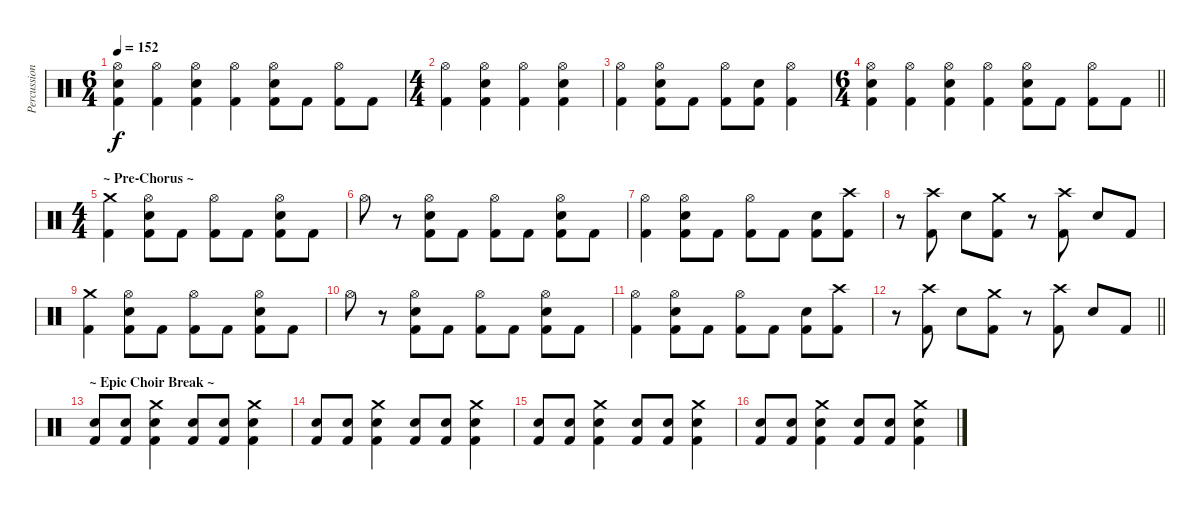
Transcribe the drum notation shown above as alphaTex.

\track ("Percussion" "Percussion") {instrument percussion}
\staff {score}
\articulation defaults
\ts (6 4)
\tempo 152
\clef neutral
\ks c
("Hi-Hat (open)" "Electric Snare (hit)" "Kick (hit) 2").4{dy f} ("Hi-Hat (open)" "Kick (hit) 2").4 ("Hi-Hat (open)" "Electric Snare (hit)" "Kick (hit) 2").4 ("Hi-Hat (open)" "Kick (hit) 2").4 ("Hi-Hat (open)" "Electric Snare (hit)" "Kick (hit) 2").8 "Kick (hit) 2".8 ("Hi-Hat (open)" "Kick (hit) 2").8 "Kick (hit) 2".8 |
\ts (4 4)
("Hi-Hat (open)" "Kick (hit) 2").4 ("Hi-Hat (open)" "Electric Snare (hit)" "Kick (hit) 2").4 ("Hi-Hat (open)" "Kick (hit) 2").4 ("Hi-Hat (open)" "Electric Snare (hit)" "Kick (hit) 2").4 |
("Hi-Hat (open)" "Kick (hit) 2").4 ("Hi-Hat (open)" "Electric Snare (hit)" "Kick (hit) 2").8 "Kick (hit) 2".8 ("Hi-Hat (open)" "Kick (hit) 2").8 ("Electric Snare (hit)" "Kick (hit) 2").8 ("Hi-Hat (open)" "Kick (hit) 2").4 |
\ts (6 4)
\barLineRight lightlight
("Hi-Hat (open)" "Electric Snare (hit)" "Kick (hit) 2").4 ("Hi-Hat (open)" "Kick (hit) 2").4 ("Hi-Hat (open)" "Electric Snare (hit)" "Kick (hit) 2").4 ("Hi-Hat (open)" "Kick (hit) 2").4 ("Hi-Hat (open)" "Electric Snare (hit)" "Kick (hit) 2").8 "Kick (hit) 2".8 ("Hi-Hat (open)" "Kick (hit) 2").8 "Kick (hit) 2".8 |
\ts (4 4)
\section ("" "~ Pre-Chorus ~")
("Crash medium (hit)" "Kick (hit) 2").4 ("Hi-Hat (open)" "Electric Snare (hit)" "Kick (hit) 2").8 "Kick (hit) 2".8 ("Hi-Hat (open)" "Kick (hit) 2").8 "Kick (hit) 2".8 ("Hi-Hat (open)" "Electric Snare (hit)" "Kick (hit) 2").8 "Kick (hit) 2".8 |
"Hi-Hat (open)".8 r.8 ("Hi-Hat (open)" "Electric Snare (hit)" "Kick (hit) 2").8 "Kick (hit) 2".8 ("Hi-Hat (open)" "Kick (hit) 2").8 "Kick (hit) 2".8 ("Hi-Hat (open)" "Electric Snare (hit)" "Kick (hit) 2").8 "Kick (hit) 2".8 |
("Hi-Hat (open)" "Kick (hit) 2").4 ("Hi-Hat (open)" "Electric Snare (hit)" "Kick (hit) 2").8 "Kick (hit) 2".8 ("Hi-Hat (open)" "Kick (hit) 2").8 "Kick (hit) 2".8 ("Electric Snare (hit)" "Kick (hit) 2").8 ("Crash high (hit)" "Kick (hit) 2").8 |
r.8 ("Crash high (hit)" "Kick (hit) 2").8 "Electric Snare (hit)".8 ("Crash medium (hit)" "Kick (hit) 2").8 r.8 ("Crash high (hit)" "Kick (hit) 2").8 "Electric Snare (hit)".8 "Kick (hit) 2".8 |
("Crash medium (hit)" "Kick (hit) 2").4 ("Hi-Hat (open)" "Electric Snare (hit)" "Kick (hit) 2").8 "Kick (hit) 2".8 ("Hi-Hat (open)" "Kick (hit) 2").8 "Kick (hit) 2".8 ("Hi-Hat (open)" "Electric Snare (hit)" "Kick (hit) 2").8 "Kick (hit) 2".8 |
"Hi-Hat (open)".8 r.8 ("Hi-Hat (open)" "Electric Snare (hit)" "Kick (hit) 2").8 "Kick (hit) 2".8 ("Hi-Hat (open)" "Kick (hit) 2").8 "Kick (hit) 2".8 ("Hi-Hat (open)" "Electric Snare (hit)" "Kick (hit) 2").8 "Kick (hit) 2".8 |
("Hi-Hat (open)" "Kick (hit) 2").4 ("Hi-Hat (open)" "Electric Snare (hit)" "Kick (hit) 2").8 "Kick (hit) 2".8 ("Hi-Hat (open)" "Kick (hit) 2").8 "Kick (hit) 2".8 ("Electric Snare (hit)" "Kick (hit) 2").8 ("Crash high (hit)" "Kick (hit) 2").8 |
\barLineRight lightlight
r.8 ("Crash high (hit)" "Kick (hit) 2").8 "Electric Snare (hit)".8 ("Crash medium (hit)" "Kick (hit) 2").8 r.8 ("Crash high (hit)" "Kick (hit) 2").8 "Electric Snare (hit)".8 "Kick (hit) 2".8 |
\section ("" "~ Epic Choir Break ~")
("Electric Snare (hit)" "Kick (hit) 2").8 ("Electric Snare (hit)" "Kick (hit) 2").8 ("Crash medium (hit)" "Electric Snare (hit)" "Kick (hit) 2").4 ("Electric Snare (hit)" "Kick (hit) 2").8 ("Electric Snare (hit)" "Kick (hit) 2").8 ("Crash medium (hit)" "Electric Snare (hit)" "Kick (hit) 2").4 |
("Electric Snare (hit)" "Kick (hit) 2").8 ("Electric Snare (hit)" "Kick (hit) 2").8 ("Crash medium (hit)" "Electric Snare (hit)" "Kick (hit) 2").4 ("Electric Snare (hit)" "Kick (hit) 2").8 ("Electric Snare (hit)" "Kick (hit) 2").8 ("Crash medium (hit)" "Electric Snare (hit)" "Kick (hit) 2").4 |
("Electric Snare (hit)" "Kick (hit) 2").8 ("Electric Snare (hit)" "Kick (hit) 2").8 ("Crash medium (hit)" "Electric Snare (hit)" "Kick (hit) 2").4 ("Electric Snare (hit)" "Kick (hit) 2").8 ("Electric Snare (hit)" "Kick (hit) 2").8 ("Crash medium (hit)" "Electric Snare (hit)" "Kick (hit) 2").4 |
("Electric Snare (hit)" "Kick (hit) 2").8 ("Electric Snare (hit)" "Kick (hit) 2").8 ("Crash medium (hit)" "Electric Snare (hit)" "Kick (hit) 2").4 ("Electric Snare (hit)" "Kick (hit) 2").8 ("Electric Snare (hit)" "Kick (hit) 2").8 ("Crash medium (hit)" "Electric Snare (hit)" "Kick (hit) 2").4
